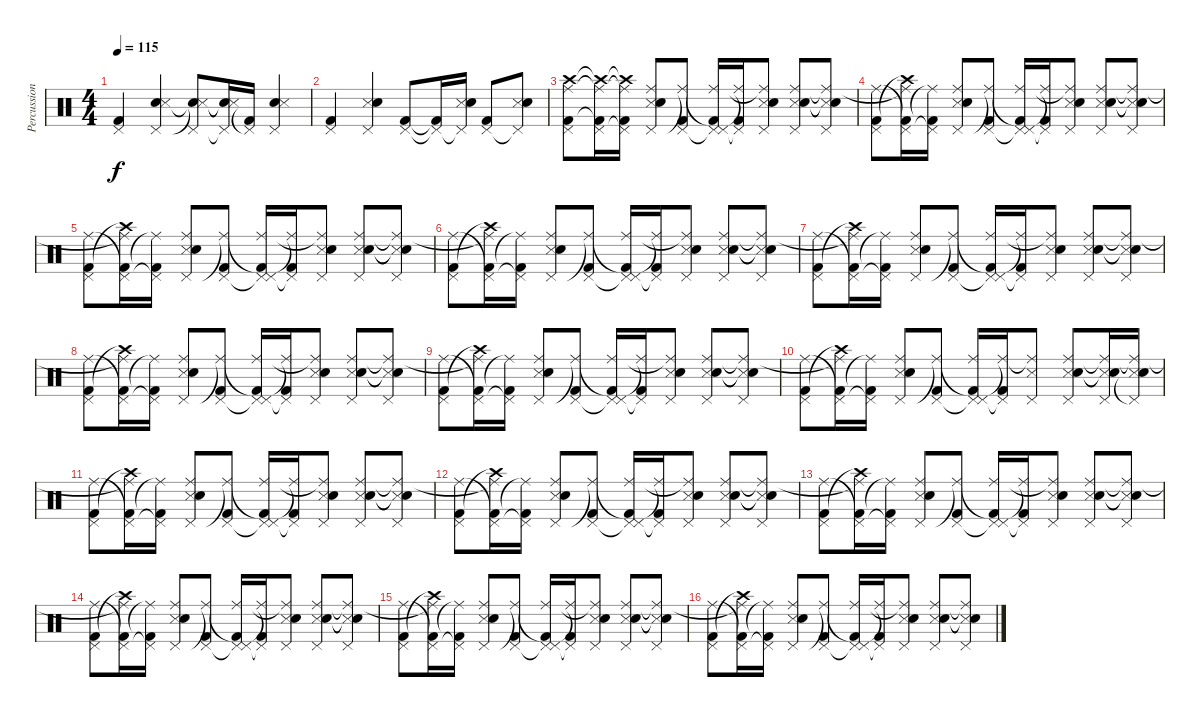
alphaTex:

\track ("Percussioni" "Percussion") {instrument percussion}
\staff {score}
\articulation defaults
\ts (4 4)
\tempo 115
\clef neutral
\ks c
("Kick (hit) 2" "Pedal Hi-Hat (hit)").4{dy f} ("Electric Snare (hit)" "Pedal Hi-Hat (hit)" "Snare (side stick) 3").4 ("Pedal Hi-Hat (hit)" "Electric Snare (hit)"{t} "Snare (side stick) 3"{t}).8 ("Pedal Hi-Hat (hit)"{t} "Electric Snare (hit)"{t} "Snare (side stick) 3"{t}).16 ("Kick (hit) 2" "Pedal Hi-Hat (hit)"{t}).16 ("Electric Snare (hit)" "Pedal Hi-Hat (hit)" "Snare (side stick) 3").4 |
("Kick (hit) 2" "Pedal Hi-Hat (hit)").4 ("Snare (side stick) 3" "Pedal Hi-Hat (hit)" "Electric Snare (hit)").4 ("Kick (hit) 2" "Pedal Hi-Hat (hit)").8 ("Kick (hit) 2"{t} "Pedal Hi-Hat (hit)"{t}).16 ("Snare (side stick) 3" "Pedal Hi-Hat (hit)"{t} "Electric Snare (hit)").16 ("Kick (hit) 2" "Pedal Hi-Hat (hit)").8 ("Snare (side stick) 3" "Pedal Hi-Hat (hit)"{t} "Electric Snare (hit)").8 |
("Pedal Hi-Hat (hit)" "Crash high (hit)" "Kick (hit) 2" "Ride (middle)").8 ("Pedal Hi-Hat (hit)" "Crash high (hit)"{t} "Kick (hit) 2"{t} "Ride (middle)"{t}).16 ("Pedal Hi-Hat (hit)"{t} "Crash high (hit)"{t} "Kick (hit) 2" "Ride (middle)"{t}).16 ("Snare (side stick) 3" "Electric Snare (hit)" "Pedal Hi-Hat (hit)" "Ride (middle)").8 ("Pedal Hi-Hat (hit)" "Kick (hit) 2" "Ride (middle)"{t}).8 ("Pedal Hi-Hat (hit)"{t} "Pedal Hi-Hat (hit)" "Kick (hit) 2"{t} "Ride (middle)").16 ("Pedal Hi-Hat (hit)"{t} "Kick (hit) 2" "Ride (middle)"{t}).16 ("Snare (side stick) 3" "Pedal Hi-Hat (hit)" "Electric Snare (hit)" "Ride (middle)"{t}).8 ("Snare (side stick) 3" "Electric Snare (hit)" "Pedal Hi-Hat (hit)" "Ride (middle)").8 ("Snare (side stick) 3"{t} "Electric Snare (hit)"{t} "Pedal Hi-Hat (hit)" "Ride (middle)"{t}).8 |
("Pedal Hi-Hat (hit)" "Kick (hit) 2" "Ride (middle)").8 ("Pedal Hi-Hat (hit)" "Crash high (hit)"{t} "Kick (hit) 2"{t} "Ride (middle)"{t}).16 ("Pedal Hi-Hat (hit)"{t} "Kick (hit) 2" "Ride (middle)"{t}).16 ("Snare (side stick) 3" "Electric Snare (hit)" "Pedal Hi-Hat (hit)" "Ride (middle)").8 ("Pedal Hi-Hat (hit)" "Kick (hit) 2" "Ride (middle)"{t}).8 ("Pedal Hi-Hat (hit)"{t} "Pedal Hi-Hat (hit)" "Kick (hit) 2"{t} "Ride (middle)").16 ("Pedal Hi-Hat (hit)"{t} "Kick (hit) 2" "Ride (middle)"{t}).16 ("Snare (side stick) 3" "Pedal Hi-Hat (hit)" "Electric Snare (hit)" "Ride (middle)"{t}).8 ("Snare (side stick) 3" "Electric Snare (hit)" "Pedal Hi-Hat (hit)" "Ride (middle)").8 ("Snare (side stick) 3"{t} "Electric Snare (hit)"{t} "Pedal Hi-Hat (hit)" "Ride (middle)"{t}).8 |
("Pedal Hi-Hat (hit)" "Kick (hit) 2" "Ride (middle)").8 ("Pedal Hi-Hat (hit)" "Crash high (hit)"{t} "Kick (hit) 2"{t} "Ride (middle)"{t}).16 ("Pedal Hi-Hat (hit)"{t} "Kick (hit) 2" "Ride (middle)"{t}).16 ("Snare (side stick) 3" "Electric Snare (hit)" "Pedal Hi-Hat (hit)" "Ride (middle)").8 ("Pedal Hi-Hat (hit)" "Kick (hit) 2" "Ride (middle)"{t}).8 ("Pedal Hi-Hat (hit)"{t} "Pedal Hi-Hat (hit)" "Kick (hit) 2"{t} "Ride (middle)").16 ("Pedal Hi-Hat (hit)"{t} "Kick (hit) 2" "Ride (middle)"{t}).16 ("Snare (side stick) 3" "Pedal Hi-Hat (hit)" "Electric Snare (hit)" "Ride (middle)"{t}).8 ("Snare (side stick) 3" "Electric Snare (hit)" "Pedal Hi-Hat (hit)" "Ride (middle)").8 ("Snare (side stick) 3"{t} "Electric Snare (hit)"{t} "Pedal Hi-Hat (hit)" "Ride (middle)"{t}).8 |
("Pedal Hi-Hat (hit)" "Kick (hit) 2" "Ride (middle)").8 ("Pedal Hi-Hat (hit)" "Crash high (hit)"{t} "Kick (hit) 2"{t} "Ride (middle)"{t}).16 ("Pedal Hi-Hat (hit)"{t} "Kick (hit) 2" "Ride (middle)"{t}).16 ("Snare (side stick) 3" "Electric Snare (hit)" "Pedal Hi-Hat (hit)" "Ride (middle)").8 ("Pedal Hi-Hat (hit)" "Kick (hit) 2" "Ride (middle)"{t}).8 ("Pedal Hi-Hat (hit)"{t} "Pedal Hi-Hat (hit)" "Kick (hit) 2"{t} "Ride (middle)").16 ("Pedal Hi-Hat (hit)"{t} "Kick (hit) 2" "Ride (middle)"{t}).16 ("Snare (side stick) 3" "Pedal Hi-Hat (hit)" "Electric Snare (hit)" "Ride (middle)"{t}).8 ("Snare (side stick) 3" "Electric Snare (hit)" "Pedal Hi-Hat (hit)" "Ride (middle)").8 ("Snare (side stick) 3"{t} "Electric Snare (hit)"{t} "Pedal Hi-Hat (hit)" "Ride (middle)"{t}).8 |
("Pedal Hi-Hat (hit)" "Kick (hit) 2" "Ride (middle)").8 ("Pedal Hi-Hat (hit)" "Crash high (hit)"{t} "Kick (hit) 2"{t} "Ride (middle)"{t}).16 ("Pedal Hi-Hat (hit)"{t} "Kick (hit) 2" "Ride (middle)"{t}).16 ("Snare (side stick) 3" "Electric Snare (hit)" "Pedal Hi-Hat (hit)" "Ride (middle)").8 ("Pedal Hi-Hat (hit)" "Kick (hit) 2" "Ride (middle)"{t}).8 ("Pedal Hi-Hat (hit)"{t} "Pedal Hi-Hat (hit)" "Kick (hit) 2"{t} "Ride (middle)").16 ("Pedal Hi-Hat (hit)"{t} "Kick (hit) 2" "Ride (middle)"{t}).16 ("Snare (side stick) 3" "Pedal Hi-Hat (hit)" "Electric Snare (hit)" "Ride (middle)"{t}).8 ("Snare (side stick) 3" "Electric Snare (hit)" "Pedal Hi-Hat (hit)" "Ride (middle)").8 ("Snare (side stick) 3"{t} "Electric Snare (hit)"{t} "Pedal Hi-Hat (hit)" "Ride (middle)"{t}).8 |
("Pedal Hi-Hat (hit)" "Kick (hit) 2" "Ride (middle)").8 ("Pedal Hi-Hat (hit)" "Crash high (hit)"{t} "Kick (hit) 2"{t} "Ride (middle)"{t}).16 ("Pedal Hi-Hat (hit)"{t} "Kick (hit) 2" "Ride (middle)"{t}).16 ("Snare (side stick) 3" "Electric Snare (hit)" "Pedal Hi-Hat (hit)" "Ride (middle)").8 ("Pedal Hi-Hat (hit)" "Kick (hit) 2" "Ride (middle)"{t}).8 ("Pedal Hi-Hat (hit)"{t} "Pedal Hi-Hat (hit)" "Kick (hit) 2"{t} "Ride (middle)").16 ("Pedal Hi-Hat (hit)"{t} "Kick (hit) 2" "Ride (middle)"{t}).16 ("Snare (side stick) 3" "Pedal Hi-Hat (hit)" "Electric Snare (hit)" "Ride (middle)"{t}).8 ("Snare (side stick) 3" "Electric Snare (hit)" "Pedal Hi-Hat (hit)" "Ride (middle)").8 ("Snare (side stick) 3"{t} "Electric Snare (hit)"{t} "Pedal Hi-Hat (hit)" "Ride (middle)"{t}).8 |
("Pedal Hi-Hat (hit)" "Kick (hit) 2" "Ride (middle)").8 ("Pedal Hi-Hat (hit)" "Crash high (hit)"{t} "Kick (hit) 2"{t} "Ride (middle)"{t}).16 ("Pedal Hi-Hat (hit)"{t} "Kick (hit) 2" "Ride (middle)"{t}).16 ("Snare (side stick) 3" "Electric Snare (hit)" "Pedal Hi-Hat (hit)" "Ride (middle)").8 ("Pedal Hi-Hat (hit)" "Kick (hit) 2" "Ride (middle)"{t}).8 ("Pedal Hi-Hat (hit)"{t} "Pedal Hi-Hat (hit)" "Kick (hit) 2"{t} "Ride (middle)").16 ("Pedal Hi-Hat (hit)"{t} "Kick (hit) 2" "Ride (middle)"{t}).16 ("Snare (side stick) 3" "Pedal Hi-Hat (hit)" "Electric Snare (hit)" "Ride (middle)"{t}).8 ("Snare (side stick) 3" "Electric Snare (hit)" "Pedal Hi-Hat (hit)" "Ride (middle)").8 ("Snare (side stick) 3"{t} "Electric Snare (hit)"{t} "Pedal Hi-Hat (hit)" "Ride (middle)"{t}).8 |
("Pedal Hi-Hat (hit)" "Kick (hit) 2" "Ride (middle)").8 ("Pedal Hi-Hat (hit)" "Crash high (hit)"{t} "Kick (hit) 2"{t} "Ride (middle)"{t}).16 ("Pedal Hi-Hat (hit)"{t} "Kick (hit) 2" "Ride (middle)"{t}).16 ("Snare (side stick) 3" "Electric Snare (hit)" "Pedal Hi-Hat (hit)" "Ride (middle)").8 ("Pedal Hi-Hat (hit)" "Kick (hit) 2" "Ride (middle)"{t}).8 ("Pedal Hi-Hat (hit)"{t} "Pedal Hi-Hat (hit)" "Kick (hit) 2"{t} "Ride (middle)").16 ("Pedal Hi-Hat (hit)"{t} "Kick (hit) 2" "Ride (middle)"{t}).16 ("Snare (side stick) 3" "Pedal Hi-Hat (hit)" "Ride (middle)"{t}).8 ("Snare (side stick) 3" "Electric Snare (hit)" "Pedal Hi-Hat (hit)" "Ride (middle)").8 ("Snare (side stick) 3"{t} "Electric Snare (hit)"{t} "Pedal Hi-Hat (hit)" "Ride (middle)"{t}).16 ("Pedal Hi-Hat (hit)"{t} "Snare (side stick) 3" "Electric Snare (hit)" "Ride (middle)"{t}).16 |
("Pedal Hi-Hat (hit)" "Kick (hit) 2" "Ride (middle)").8 ("Pedal Hi-Hat (hit)" "Crash high (hit)"{t} "Kick (hit) 2"{t} "Ride (middle)"{t}).16 ("Pedal Hi-Hat (hit)"{t} "Kick (hit) 2" "Ride (middle)"{t}).16 ("Snare (side stick) 3" "Electric Snare (hit)" "Pedal Hi-Hat (hit)" "Ride (middle)").8 ("Pedal Hi-Hat (hit)" "Kick (hit) 2" "Ride (middle)"{t}).8 ("Pedal Hi-Hat (hit)"{t} "Pedal Hi-Hat (hit)" "Kick (hit) 2"{t} "Ride (middle)").16 ("Pedal Hi-Hat (hit)"{t} "Kick (hit) 2" "Ride (middle)"{t}).16 ("Snare (side stick) 3" "Pedal Hi-Hat (hit)" "Electric Snare (hit)" "Ride (middle)"{t}).8 ("Snare (side stick) 3" "Electric Snare (hit)" "Pedal Hi-Hat (hit)" "Ride (middle)").8 ("Snare (side stick) 3"{t} "Electric Snare (hit)"{t} "Pedal Hi-Hat (hit)" "Ride (middle)"{t}).8 |
("Pedal Hi-Hat (hit)" "Kick (hit) 2" "Ride (middle)").8 ("Pedal Hi-Hat (hit)" "Crash high (hit)"{t} "Kick (hit) 2"{t} "Ride (middle)"{t}).16 ("Pedal Hi-Hat (hit)"{t} "Kick (hit) 2" "Ride (middle)"{t}).16 ("Snare (side stick) 3" "Electric Snare (hit)" "Pedal Hi-Hat (hit)" "Ride (middle)").8 ("Pedal Hi-Hat (hit)" "Kick (hit) 2" "Ride (middle)"{t}).8 ("Pedal Hi-Hat (hit)"{t} "Pedal Hi-Hat (hit)" "Kick (hit) 2"{t} "Ride (middle)").16 ("Pedal Hi-Hat (hit)"{t} "Kick (hit) 2" "Ride (middle)"{t}).16 ("Snare (side stick) 3" "Pedal Hi-Hat (hit)" "Electric Snare (hit)" "Ride (middle)"{t}).8 ("Snare (side stick) 3" "Electric Snare (hit)" "Pedal Hi-Hat (hit)" "Ride (middle)").8 ("Snare (side stick) 3"{t} "Electric Snare (hit)"{t} "Pedal Hi-Hat (hit)" "Ride (middle)"{t}).8 |
("Pedal Hi-Hat (hit)" "Kick (hit) 2" "Ride (middle)").8 ("Pedal Hi-Hat (hit)" "Crash high (hit)"{t} "Kick (hit) 2"{t} "Ride (middle)"{t}).16 ("Pedal Hi-Hat (hit)"{t} "Kick (hit) 2" "Ride (middle)"{t}).16 ("Snare (side stick) 3" "Electric Snare (hit)" "Pedal Hi-Hat (hit)" "Ride (middle)").8 ("Pedal Hi-Hat (hit)" "Kick (hit) 2" "Ride (middle)"{t}).8 ("Pedal Hi-Hat (hit)"{t} "Pedal Hi-Hat (hit)" "Kick (hit) 2"{t} "Ride (middle)").16 ("Pedal Hi-Hat (hit)"{t} "Kick (hit) 2" "Ride (middle)"{t}).16 ("Snare (side stick) 3" "Pedal Hi-Hat (hit)" "Electric Snare (hit)" "Ride (middle)"{t}).8 ("Snare (side stick) 3" "Electric Snare (hit)" "Pedal Hi-Hat (hit)" "Ride (middle)").8 ("Snare (side stick) 3"{t} "Electric Snare (hit)"{t} "Pedal Hi-Hat (hit)" "Ride (middle)"{t}).8 |
("Pedal Hi-Hat (hit)" "Kick (hit) 2" "Ride (middle)").8 ("Pedal Hi-Hat (hit)" "Crash high (hit)"{t} "Kick (hit) 2"{t} "Ride (middle)"{t}).16 ("Pedal Hi-Hat (hit)"{t} "Kick (hit) 2" "Ride (middle)"{t}).16 ("Snare (side stick) 3" "Electric Snare (hit)" "Pedal Hi-Hat (hit)" "Ride (middle)").8 ("Pedal Hi-Hat (hit)" "Kick (hit) 2" "Ride (middle)"{t}).8 ("Pedal Hi-Hat (hit)"{t} "Pedal Hi-Hat (hit)" "Kick (hit) 2"{t} "Ride (middle)").16 ("Pedal Hi-Hat (hit)"{t} "Kick (hit) 2" "Ride (middle)"{t}).16 ("Snare (side stick) 3" "Pedal Hi-Hat (hit)" "Electric Snare (hit)" "Ride (middle)"{t}).8 ("Snare (side stick) 3" "Electric Snare (hit)" "Pedal Hi-Hat (hit)" "Ride (middle)").8 ("Snare (side stick) 3"{t} "Electric Snare (hit)"{t} "Pedal Hi-Hat (hit)" "Ride (middle)"{t}).8 |
("Pedal Hi-Hat (hit)" "Kick (hit) 2" "Ride (middle)").8 ("Pedal Hi-Hat (hit)" "Crash high (hit)"{t} "Kick (hit) 2"{t} "Ride (middle)"{t}).16 ("Pedal Hi-Hat (hit)"{t} "Kick (hit) 2" "Ride (middle)"{t}).16 ("Snare (side stick) 3" "Electric Snare (hit)" "Pedal Hi-Hat (hit)" "Ride (middle)").8 ("Pedal Hi-Hat (hit)" "Kick (hit) 2" "Ride (middle)"{t}).8 ("Pedal Hi-Hat (hit)"{t} "Pedal Hi-Hat (hit)" "Kick (hit) 2"{t} "Ride (middle)").16 ("Pedal Hi-Hat (hit)"{t} "Kick (hit) 2" "Ride (middle)"{t}).16 ("Snare (side stick) 3" "Pedal Hi-Hat (hit)" "Electric Snare (hit)" "Ride (middle)"{t}).8 ("Snare (side stick) 3" "Electric Snare (hit)" "Pedal Hi-Hat (hit)" "Ride (middle)").8 ("Snare (side stick) 3"{t} "Electric Snare (hit)"{t} "Pedal Hi-Hat (hit)" "Ride (middle)"{t}).8 |
("Pedal Hi-Hat (hit)" "Kick (hit) 2" "Ride (middle)").8 ("Pedal Hi-Hat (hit)" "Crash high (hit)"{t} "Kick (hit) 2"{t} "Ride (middle)"{t}).16 ("Pedal Hi-Hat (hit)"{t} "Kick (hit) 2" "Ride (middle)"{t}).16 ("Snare (side stick) 3" "Electric Snare (hit)" "Pedal Hi-Hat (hit)" "Ride (middle)").8 ("Pedal Hi-Hat (hit)" "Kick (hit) 2" "Ride (middle)"{t}).8 ("Pedal Hi-Hat (hit)"{t} "Pedal Hi-Hat (hit)" "Kick (hit) 2"{t} "Ride (middle)").16 ("Pedal Hi-Hat (hit)"{t} "Kick (hit) 2" "Ride (middle)"{t}).16 ("Snare (side stick) 3" "Pedal Hi-Hat (hit)" "Electric Snare (hit)" "Ride (middle)"{t}).8 ("Snare (side stick) 3" "Electric Snare (hit)" "Pedal Hi-Hat (hit)" "Ride (middle)").8 ("Snare (side stick) 3"{t} "Electric Snare (hit)"{t} "Pedal Hi-Hat (hit)" "Ride (middle)"{t}).8
